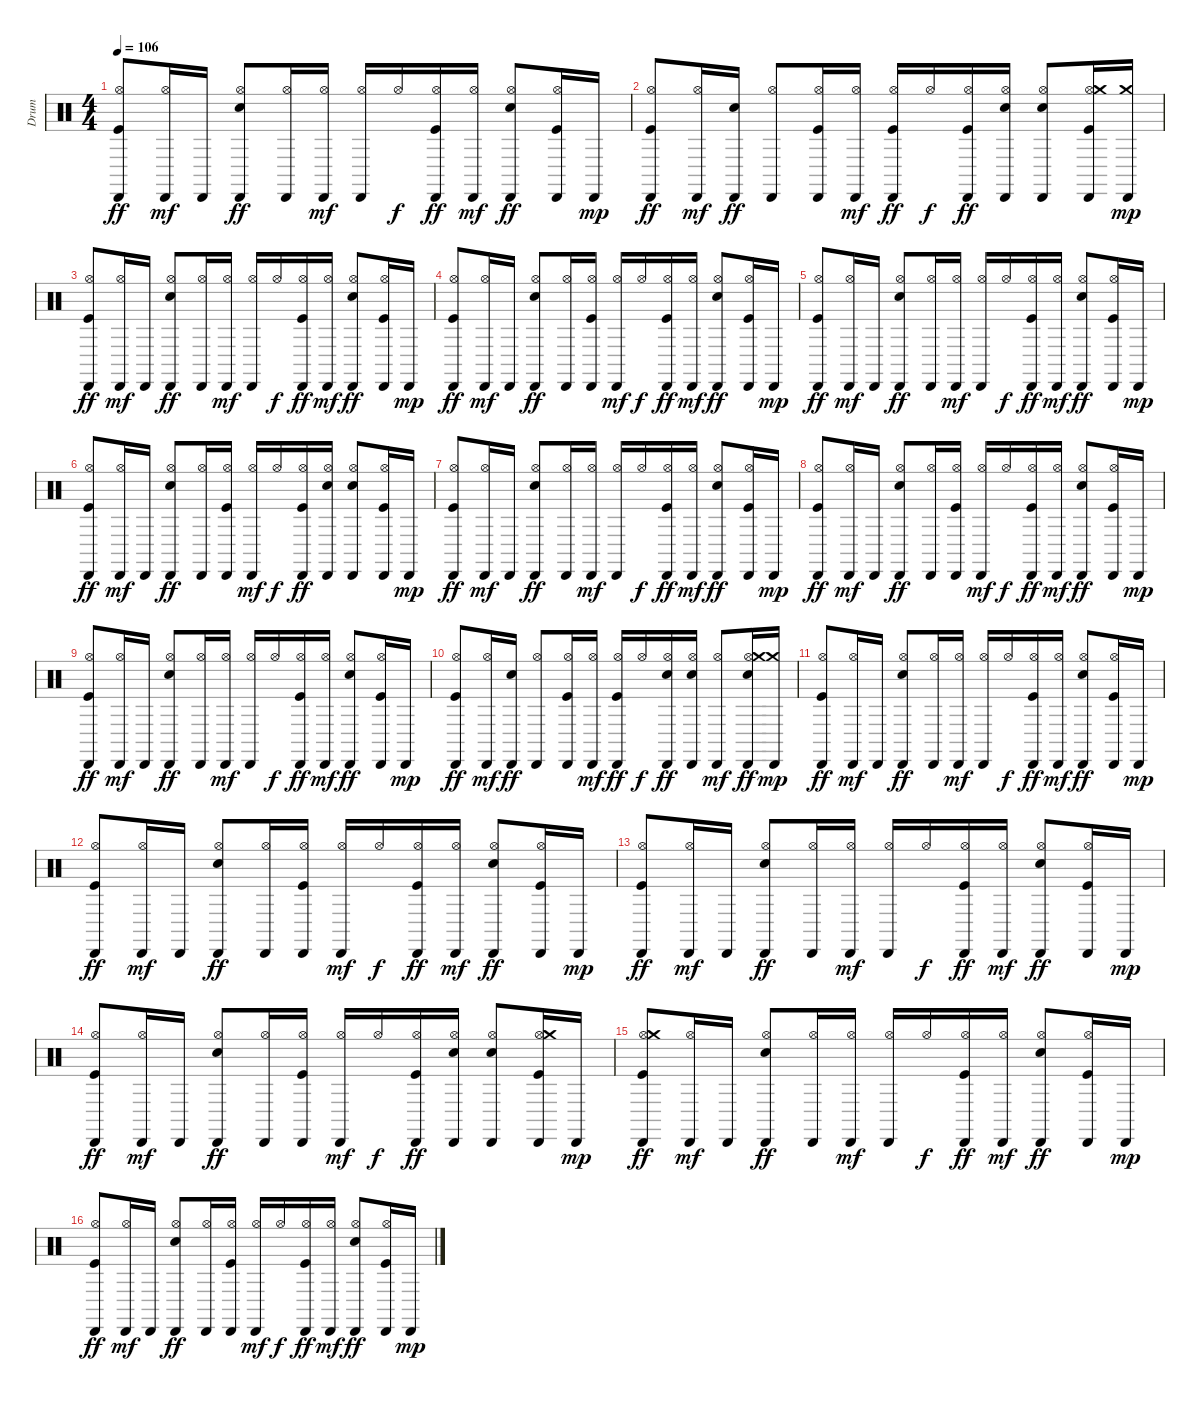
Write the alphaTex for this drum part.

\track ("Drum" "Drum") {instrument percussion}
\staff {score}
\articulation defaults
\ts (4 4)
\tempo 106
\clef neutral
\ks c
("Cabasa (hit)" "Hi-Hat (open)" "Kick (hit)").8{dy ff} ("Cabasa (hit)" "Hi-Hat (open)").16{dy mf} "Cabasa (hit)".16 ("Cabasa (hit)" "Hi-Hat (open)" "Snare (hit) 2").8{dy ff} ("Cabasa (hit)" "Hi-Hat (open)").16 ("Cabasa (hit)" "Hi-Hat (open)").16{dy mf} ("Cabasa (hit)" "Hi-Hat (open)").16 "Hi-Hat (open)".16{dy f} ("Cabasa (hit)" "Hi-Hat (open)" "Kick (hit)").16{dy ff} ("Cabasa (hit)" "Hi-Hat (open)").16{dy mf} ("Cabasa (hit)" "Hi-Hat (open)" "Snare (hit) 2").8{dy ff} ("Cabasa (hit)" "Hi-Hat (open)" "Kick (hit)").16 "Cabasa (hit)".16{dy mp} |
("Cabasa (hit)" "Hi-Hat (open)" "Kick (hit)").8{dy ff} ("Cabasa (hit)" "Hi-Hat (open)").16{dy mf} ("Cabasa (hit)" "Snare (hit) 2").16{dy ff} ("Cabasa (hit)" "Hi-Hat (open)").8 ("Cabasa (hit)" "Hi-Hat (open)" "Kick (hit)").16 ("Cabasa (hit)" "Hi-Hat (open)").16{dy mf} ("Cabasa (hit)" "Hi-Hat (open)" "Kick (hit)").16{dy ff} "Hi-Hat (open)".16{dy f} ("Cabasa (hit)" "Hi-Hat (open)" "Kick (hit)").16{dy ff} ("Cabasa (hit)" "Hi-Hat (open)" "Snare (hit) 2").16 ("Cabasa (hit)" "Hi-Hat (open)" "Snare (hit) 2").8 ("Cabasa (hit)" "Hi-Hat (open)" "Crash medium (hit)" "Kick (hit)").16 ("Cabasa (hit)" "Crash medium (hit)").16{dy mp} |
("Cabasa (hit)" "Hi-Hat (open)" "Kick (hit)").8{dy ff} ("Cabasa (hit)" "Hi-Hat (open)").16{dy mf} "Cabasa (hit)".16 ("Cabasa (hit)" "Hi-Hat (open)" "Snare (hit) 2").8{dy ff} ("Cabasa (hit)" "Hi-Hat (open)").16 ("Cabasa (hit)" "Hi-Hat (open)").16{dy mf} ("Cabasa (hit)" "Hi-Hat (open)").16 "Hi-Hat (open)".16{dy f} ("Cabasa (hit)" "Hi-Hat (open)" "Kick (hit)").16{dy ff} ("Cabasa (hit)" "Hi-Hat (open)").16{dy mf} ("Cabasa (hit)" "Hi-Hat (open)" "Snare (hit) 2").8{dy ff} ("Cabasa (hit)" "Hi-Hat (open)" "Kick (hit)").16 "Cabasa (hit)".16{dy mp} |
("Cabasa (hit)" "Hi-Hat (open)" "Kick (hit)").8{dy ff} ("Cabasa (hit)" "Hi-Hat (open)").16{dy mf} "Cabasa (hit)".16 ("Cabasa (hit)" "Hi-Hat (open)" "Snare (hit) 2").8{dy ff} ("Cabasa (hit)" "Hi-Hat (open)").16 ("Cabasa (hit)" "Hi-Hat (open)" "Kick (hit)").16 ("Cabasa (hit)" "Hi-Hat (open)").16{dy mf} "Hi-Hat (open)".16{dy f} ("Cabasa (hit)" "Hi-Hat (open)" "Kick (hit)").16{dy ff} ("Cabasa (hit)" "Hi-Hat (open)").16{dy mf} ("Cabasa (hit)" "Hi-Hat (open)" "Snare (hit) 2").8{dy ff} ("Cabasa (hit)" "Hi-Hat (open)" "Kick (hit)").16 "Cabasa (hit)".16{dy mp} |
("Cabasa (hit)" "Hi-Hat (open)" "Kick (hit)").8{dy ff} ("Cabasa (hit)" "Hi-Hat (open)").16{dy mf} "Cabasa (hit)".16 ("Cabasa (hit)" "Hi-Hat (open)" "Snare (hit) 2").8{dy ff} ("Cabasa (hit)" "Hi-Hat (open)").16 ("Cabasa (hit)" "Hi-Hat (open)").16{dy mf} ("Cabasa (hit)" "Hi-Hat (open)").16 "Hi-Hat (open)".16{dy f} ("Cabasa (hit)" "Hi-Hat (open)" "Kick (hit)").16{dy ff} ("Cabasa (hit)" "Hi-Hat (open)").16{dy mf} ("Cabasa (hit)" "Hi-Hat (open)" "Snare (hit) 2").8{dy ff} ("Cabasa (hit)" "Hi-Hat (open)" "Kick (hit)").16 "Cabasa (hit)".16{dy mp} |
("Cabasa (hit)" "Hi-Hat (open)" "Kick (hit)").8{dy ff} ("Cabasa (hit)" "Hi-Hat (open)").16{dy mf} "Cabasa (hit)".16 ("Cabasa (hit)" "Hi-Hat (open)" "Snare (hit) 2").8{dy ff} ("Cabasa (hit)" "Hi-Hat (open)").16 ("Cabasa (hit)" "Hi-Hat (open)" "Kick (hit)").16 ("Cabasa (hit)" "Hi-Hat (open)").16{dy mf} "Hi-Hat (open)".16{dy f} ("Cabasa (hit)" "Hi-Hat (open)" "Kick (hit)").16{dy ff} ("Cabasa (hit)" "Hi-Hat (open)" "Snare (hit) 2").16 ("Cabasa (hit)" "Hi-Hat (open)" "Snare (hit) 2").8 ("Cabasa (hit)" "Hi-Hat (open)" "Kick (hit)").16 "Cabasa (hit)".16{dy mp} |
("Cabasa (hit)" "Hi-Hat (open)" "Kick (hit)").8{dy ff} ("Cabasa (hit)" "Hi-Hat (open)").16{dy mf} "Cabasa (hit)".16 ("Cabasa (hit)" "Hi-Hat (open)" "Snare (hit) 2").8{dy ff} ("Cabasa (hit)" "Hi-Hat (open)").16 ("Cabasa (hit)" "Hi-Hat (open)").16{dy mf} ("Cabasa (hit)" "Hi-Hat (open)").16 "Hi-Hat (open)".16{dy f} ("Cabasa (hit)" "Hi-Hat (open)" "Kick (hit)").16{dy ff} ("Cabasa (hit)" "Hi-Hat (open)").16{dy mf} ("Cabasa (hit)" "Hi-Hat (open)" "Snare (hit) 2").8{dy ff} ("Cabasa (hit)" "Hi-Hat (open)" "Kick (hit)").16 "Cabasa (hit)".16{dy mp} |
("Cabasa (hit)" "Hi-Hat (open)" "Kick (hit)").8{dy ff} ("Cabasa (hit)" "Hi-Hat (open)").16{dy mf} "Cabasa (hit)".16 ("Cabasa (hit)" "Hi-Hat (open)" "Snare (hit) 2").8{dy ff} ("Cabasa (hit)" "Hi-Hat (open)").16 ("Cabasa (hit)" "Hi-Hat (open)" "Kick (hit)").16 ("Cabasa (hit)" "Hi-Hat (open)").16{dy mf} "Hi-Hat (open)".16{dy f} ("Cabasa (hit)" "Hi-Hat (open)" "Kick (hit)").16{dy ff} ("Cabasa (hit)" "Hi-Hat (open)").16{dy mf} ("Cabasa (hit)" "Hi-Hat (open)" "Snare (hit) 2").8{dy ff} ("Cabasa (hit)" "Hi-Hat (open)" "Kick (hit)").16 "Cabasa (hit)".16{dy mp} |
("Cabasa (hit)" "Hi-Hat (open)" "Kick (hit)").8{dy ff} ("Cabasa (hit)" "Hi-Hat (open)").16{dy mf} "Cabasa (hit)".16 ("Cabasa (hit)" "Hi-Hat (open)" "Snare (hit) 2").8{dy ff} ("Cabasa (hit)" "Hi-Hat (open)").16 ("Cabasa (hit)" "Hi-Hat (open)").16{dy mf} ("Cabasa (hit)" "Hi-Hat (open)").16 "Hi-Hat (open)".16{dy f} ("Cabasa (hit)" "Hi-Hat (open)" "Kick (hit)").16{dy ff} ("Cabasa (hit)" "Hi-Hat (open)").16{dy mf} ("Cabasa (hit)" "Hi-Hat (open)" "Snare (hit) 2").8{dy ff} ("Cabasa (hit)" "Hi-Hat (open)" "Kick (hit)").16 "Cabasa (hit)".16{dy mp} |
("Cabasa (hit)" "Hi-Hat (open)" "Kick (hit)").8{dy ff} ("Cabasa (hit)" "Hi-Hat (open)").16{dy mf} ("Cabasa (hit)" "Snare (hit) 2").16{dy ff} ("Cabasa (hit)" "Hi-Hat (open)").8 ("Cabasa (hit)" "Hi-Hat (open)" "Kick (hit)").16 ("Cabasa (hit)" "Hi-Hat (open)").16{dy mf} ("Cabasa (hit)" "Hi-Hat (open)" "Kick (hit)").16{dy ff} "Hi-Hat (open)".16{dy f} ("Cabasa (hit)" "Hi-Hat (open)" "Snare (hit) 2").16{dy ff} ("Cabasa (hit)" "Hi-Hat (open)" "Snare (hit) 2").16 ("Cabasa (hit)" "Hi-Hat (open)").8{dy mf} ("Cabasa (hit)" "Hi-Hat (open)" "Crash medium (hit)" "Snare (hit) 2").16{dy ff} ("Cabasa (hit)" "Crash medium (hit)").16{dy mp} |
("Cabasa (hit)" "Hi-Hat (open)" "Kick (hit)").8{dy ff} ("Cabasa (hit)" "Hi-Hat (open)").16{dy mf} "Cabasa (hit)".16 ("Cabasa (hit)" "Hi-Hat (open)" "Snare (hit) 2").8{dy ff} ("Cabasa (hit)" "Hi-Hat (open)").16 ("Cabasa (hit)" "Hi-Hat (open)").16{dy mf} ("Cabasa (hit)" "Hi-Hat (open)").16 "Hi-Hat (open)".16{dy f} ("Cabasa (hit)" "Hi-Hat (open)" "Kick (hit)").16{dy ff} ("Cabasa (hit)" "Hi-Hat (open)").16{dy mf} ("Cabasa (hit)" "Hi-Hat (open)" "Snare (hit) 2").8{dy ff} ("Cabasa (hit)" "Hi-Hat (open)" "Kick (hit)").16 "Cabasa (hit)".16{dy mp} |
("Cabasa (hit)" "Hi-Hat (open)" "Kick (hit)").8{dy ff} ("Cabasa (hit)" "Hi-Hat (open)").16{dy mf} "Cabasa (hit)".16 ("Cabasa (hit)" "Hi-Hat (open)" "Snare (hit) 2").8{dy ff} ("Cabasa (hit)" "Hi-Hat (open)").16 ("Cabasa (hit)" "Hi-Hat (open)" "Kick (hit)").16 ("Cabasa (hit)" "Hi-Hat (open)").16{dy mf} "Hi-Hat (open)".16{dy f} ("Cabasa (hit)" "Hi-Hat (open)" "Kick (hit)").16{dy ff} ("Cabasa (hit)" "Hi-Hat (open)").16{dy mf} ("Cabasa (hit)" "Hi-Hat (open)" "Snare (hit) 2").8{dy ff} ("Cabasa (hit)" "Hi-Hat (open)" "Kick (hit)").16 "Cabasa (hit)".16{dy mp} |
("Cabasa (hit)" "Hi-Hat (open)" "Kick (hit)").8{dy ff} ("Cabasa (hit)" "Hi-Hat (open)").16{dy mf} "Cabasa (hit)".16 ("Cabasa (hit)" "Hi-Hat (open)" "Snare (hit) 2").8{dy ff} ("Cabasa (hit)" "Hi-Hat (open)").16 ("Cabasa (hit)" "Hi-Hat (open)").16{dy mf} ("Cabasa (hit)" "Hi-Hat (open)").16 "Hi-Hat (open)".16{dy f} ("Cabasa (hit)" "Hi-Hat (open)" "Kick (hit)").16{dy ff} ("Cabasa (hit)" "Hi-Hat (open)").16{dy mf} ("Cabasa (hit)" "Hi-Hat (open)" "Snare (hit) 2").8{dy ff} ("Cabasa (hit)" "Hi-Hat (open)" "Kick (hit)").16 "Cabasa (hit)".16{dy mp} |
("Cabasa (hit)" "Hi-Hat (open)" "Kick (hit)").8{dy ff} ("Cabasa (hit)" "Hi-Hat (open)").16{dy mf} "Cabasa (hit)".16 ("Cabasa (hit)" "Hi-Hat (open)" "Snare (hit) 2").8{dy ff} ("Cabasa (hit)" "Hi-Hat (open)").16 ("Cabasa (hit)" "Hi-Hat (open)" "Kick (hit)").16 ("Cabasa (hit)" "Hi-Hat (open)").16{dy mf} "Hi-Hat (open)".16{dy f} ("Cabasa (hit)" "Hi-Hat (open)" "Kick (hit)").16{dy ff} ("Cabasa (hit)" "Hi-Hat (open)" "Snare (hit) 2").16 ("Cabasa (hit)" "Hi-Hat (open)" "Snare (hit) 2").8 ("Cabasa (hit)" "Hi-Hat (open)" "Crash medium (hit)" "Kick (hit)").16 "Cabasa (hit)".16{dy mp} |
("Cabasa (hit)" "Hi-Hat (open)" "Crash medium (hit)" "Kick (hit)").8{dy ff} ("Cabasa (hit)" "Hi-Hat (open)").16{dy mf} "Cabasa (hit)".16 ("Cabasa (hit)" "Hi-Hat (open)" "Snare (hit) 2").8{dy ff} ("Cabasa (hit)" "Hi-Hat (open)").16 ("Cabasa (hit)" "Hi-Hat (open)").16{dy mf} ("Cabasa (hit)" "Hi-Hat (open)").16 "Hi-Hat (open)".16{dy f} ("Cabasa (hit)" "Hi-Hat (open)" "Kick (hit)").16{dy ff} ("Cabasa (hit)" "Hi-Hat (open)").16{dy mf} ("Cabasa (hit)" "Hi-Hat (open)" "Snare (hit) 2").8{dy ff} ("Cabasa (hit)" "Hi-Hat (open)" "Kick (hit)").16 "Cabasa (hit)".16{dy mp} |
("Cabasa (hit)" "Hi-Hat (open)" "Kick (hit)").8{dy ff} ("Cabasa (hit)" "Hi-Hat (open)").16{dy mf} "Cabasa (hit)".16 ("Cabasa (hit)" "Hi-Hat (open)" "Snare (hit) 2").8{dy ff} ("Cabasa (hit)" "Hi-Hat (open)").16 ("Cabasa (hit)" "Hi-Hat (open)" "Kick (hit)").16 ("Cabasa (hit)" "Hi-Hat (open)").16{dy mf} "Hi-Hat (open)".16{dy f} ("Cabasa (hit)" "Hi-Hat (open)" "Kick (hit)").16{dy ff} ("Cabasa (hit)" "Hi-Hat (open)").16{dy mf} ("Cabasa (hit)" "Hi-Hat (open)" "Snare (hit) 2").8{dy ff} ("Cabasa (hit)" "Hi-Hat (open)" "Kick (hit)").16 "Cabasa (hit)".16{dy mp}
